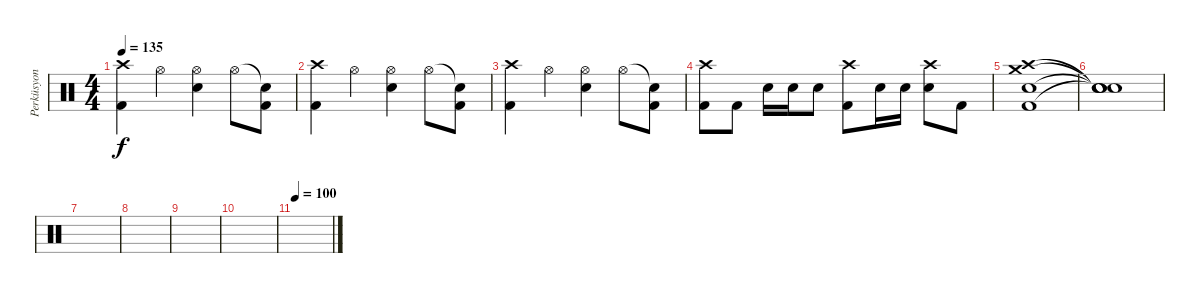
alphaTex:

\track ("Perküsyon" "Perküsyon") {instrument percussion}
\staff {score}
\articulation defaults
\ts (4 4)
\tempo 135
\clef neutral
\ks c
("Crash high (hit)" "Kick (hit) 2").4{dy f} "Hi-Hat (open)".4 ("Hi-Hat (open)" "Snare (hit) 2").4 "Hi-Hat (open)".8 ("Snare (hit)"{t} "Kick (hit) 2").8 |
("Crash high (hit)" "Kick (hit) 2").4 "Hi-Hat (open)".4 ("Hi-Hat (open)" "Snare (hit) 2").4 "Hi-Hat (open)".8 ("Snare (hit)"{t} "Kick (hit) 2").8 |
("Crash high (hit)" "Kick (hit) 2").4 "Hi-Hat (open)".4 ("Hi-Hat (open)" "Snare (hit) 2").4 "Hi-Hat (open)".8 ("Snare (hit)"{t} "Kick (hit) 2").8 |
("Kick (hit) 2" "Crash high (hit)").8 "Kick (hit) 2".8 "Snare (hit) 2".16 "Snare (hit) 2".16 "Snare (hit) 2".8 ("Kick (hit) 2" "Crash high (hit)").8 "Snare (hit) 2".16 "Snare (hit) 2".16 ("Snare (hit) 2" "Crash high (hit)").8 "Kick (hit) 2".8 |
("Crash medium (hit)" "Crash high (hit)" "Snare (hit) 2" "Kick (hit) 2").1 |
("Snare (hit)"{t} "Snare (hit)"{t} "Snare (hit)"{t} "Snare (hit)"{t}).1 |
|
|
|
|
\tempo 80
\tempo 100
